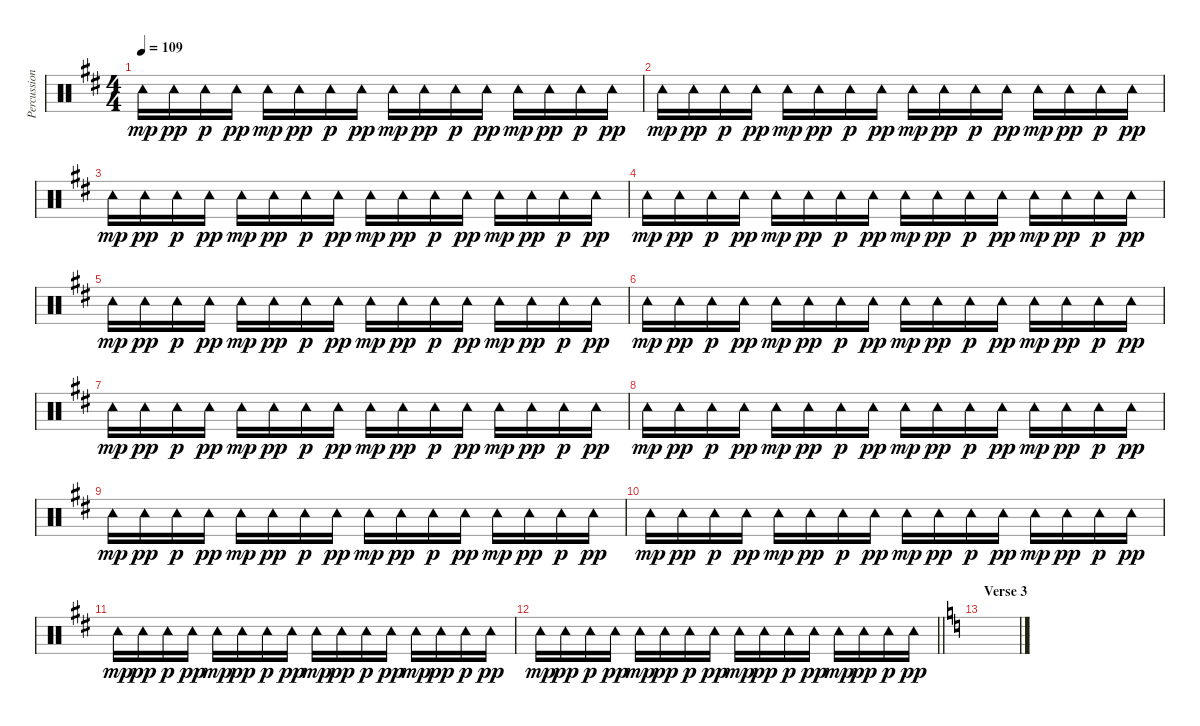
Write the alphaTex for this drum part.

\track ("Percussion (Rick McMurray)" "Percussion") {instrument percussion}
\staff {score}
\articulation defaults
\ts (4 4)
\tempo 109
\clef neutral
\ks d "Tambourine (hit)".16{dy mp} "Tambourine (hit)".16{dy pp} "Tambourine (hit)".16{dy p} "Tambourine (hit)".16{dy pp} "Tambourine (hit)".16{dy mp} "Tambourine (hit)".16{dy pp} "Tambourine (hit)".16{dy p} "Tambourine (hit)".16{dy pp} "Tambourine (hit)".16{dy mp} "Tambourine (hit)".16{dy pp} "Tambourine (hit)".16{dy p} "Tambourine (hit)".16{dy pp} "Tambourine (hit)".16{dy mp} "Tambourine (hit)".16{dy pp} "Tambourine (hit)".16{dy p} "Tambourine (hit)".16{dy pp}
|
"Tambourine (hit)".16{dy mp} "Tambourine (hit)".16{dy pp} "Tambourine (hit)".16{dy p} "Tambourine (hit)".16{dy pp} "Tambourine (hit)".16{dy mp} "Tambourine (hit)".16{dy pp} "Tambourine (hit)".16{dy p} "Tambourine (hit)".16{dy pp} "Tambourine (hit)".16{dy mp} "Tambourine (hit)".16{dy pp} "Tambourine (hit)".16{dy p} "Tambourine (hit)".16{dy pp} "Tambourine (hit)".16{dy mp} "Tambourine (hit)".16{dy pp} "Tambourine (hit)".16{dy p} "Tambourine (hit)".16{dy pp} |
"Tambourine (hit)".16{dy mp} "Tambourine (hit)".16{dy pp} "Tambourine (hit)".16{dy p} "Tambourine (hit)".16{dy pp} "Tambourine (hit)".16{dy mp} "Tambourine (hit)".16{dy pp} "Tambourine (hit)".16{dy p} "Tambourine (hit)".16{dy pp} "Tambourine (hit)".16{dy mp} "Tambourine (hit)".16{dy pp} "Tambourine (hit)".16{dy p} "Tambourine (hit)".16{dy pp} "Tambourine (hit)".16{dy mp} "Tambourine (hit)".16{dy pp} "Tambourine (hit)".16{dy p} "Tambourine (hit)".16{dy pp} |
"Tambourine (hit)".16{dy mp} "Tambourine (hit)".16{dy pp} "Tambourine (hit)".16{dy p} "Tambourine (hit)".16{dy pp} "Tambourine (hit)".16{dy mp} "Tambourine (hit)".16{dy pp} "Tambourine (hit)".16{dy p} "Tambourine (hit)".16{dy pp} "Tambourine (hit)".16{dy mp} "Tambourine (hit)".16{dy pp} "Tambourine (hit)".16{dy p} "Tambourine (hit)".16{dy pp} "Tambourine (hit)".16{dy mp} "Tambourine (hit)".16{dy pp} "Tambourine (hit)".16{dy p} "Tambourine (hit)".16{dy pp} |
"Tambourine (hit)".16{dy mp} "Tambourine (hit)".16{dy pp} "Tambourine (hit)".16{dy p} "Tambourine (hit)".16{dy pp} "Tambourine (hit)".16{dy mp} "Tambourine (hit)".16{dy pp} "Tambourine (hit)".16{dy p} "Tambourine (hit)".16{dy pp} "Tambourine (hit)".16{dy mp} "Tambourine (hit)".16{dy pp} "Tambourine (hit)".16{dy p} "Tambourine (hit)".16{dy pp} "Tambourine (hit)".16{dy mp} "Tambourine (hit)".16{dy pp} "Tambourine (hit)".16{dy p} "Tambourine (hit)".16{dy pp} |
"Tambourine (hit)".16{dy mp} "Tambourine (hit)".16{dy pp} "Tambourine (hit)".16{dy p} "Tambourine (hit)".16{dy pp} "Tambourine (hit)".16{dy mp} "Tambourine (hit)".16{dy pp} "Tambourine (hit)".16{dy p} "Tambourine (hit)".16{dy pp} "Tambourine (hit)".16{dy mp} "Tambourine (hit)".16{dy pp} "Tambourine (hit)".16{dy p} "Tambourine (hit)".16{dy pp} "Tambourine (hit)".16{dy mp} "Tambourine (hit)".16{dy pp} "Tambourine (hit)".16{dy p} "Tambourine (hit)".16{dy pp} |
"Tambourine (hit)".16{dy mp} "Tambourine (hit)".16{dy pp} "Tambourine (hit)".16{dy p} "Tambourine (hit)".16{dy pp} "Tambourine (hit)".16{dy mp} "Tambourine (hit)".16{dy pp} "Tambourine (hit)".16{dy p} "Tambourine (hit)".16{dy pp} "Tambourine (hit)".16{dy mp} "Tambourine (hit)".16{dy pp} "Tambourine (hit)".16{dy p} "Tambourine (hit)".16{dy pp} "Tambourine (hit)".16{dy mp} "Tambourine (hit)".16{dy pp} "Tambourine (hit)".16{dy p} "Tambourine (hit)".16{dy pp} |
"Tambourine (hit)".16{dy mp} "Tambourine (hit)".16{dy pp} "Tambourine (hit)".16{dy p} "Tambourine (hit)".16{dy pp} "Tambourine (hit)".16{dy mp} "Tambourine (hit)".16{dy pp} "Tambourine (hit)".16{dy p} "Tambourine (hit)".16{dy pp} "Tambourine (hit)".16{dy mp} "Tambourine (hit)".16{dy pp} "Tambourine (hit)".16{dy p} "Tambourine (hit)".16{dy pp} "Tambourine (hit)".16{dy mp} "Tambourine (hit)".16{dy pp} "Tambourine (hit)".16{dy p} "Tambourine (hit)".16{dy pp} |
"Tambourine (hit)".16{dy mp} "Tambourine (hit)".16{dy pp} "Tambourine (hit)".16{dy p} "Tambourine (hit)".16{dy pp} "Tambourine (hit)".16{dy mp} "Tambourine (hit)".16{dy pp} "Tambourine (hit)".16{dy p} "Tambourine (hit)".16{dy pp} "Tambourine (hit)".16{dy mp} "Tambourine (hit)".16{dy pp} "Tambourine (hit)".16{dy p} "Tambourine (hit)".16{dy pp} "Tambourine (hit)".16{dy mp} "Tambourine (hit)".16{dy pp} "Tambourine (hit)".16{dy p} "Tambourine (hit)".16{dy pp} |
"Tambourine (hit)".16{dy mp} "Tambourine (hit)".16{dy pp} "Tambourine (hit)".16{dy p} "Tambourine (hit)".16{dy pp} "Tambourine (hit)".16{dy mp} "Tambourine (hit)".16{dy pp} "Tambourine (hit)".16{dy p} "Tambourine (hit)".16{dy pp} "Tambourine (hit)".16{dy mp} "Tambourine (hit)".16{dy pp} "Tambourine (hit)".16{dy p} "Tambourine (hit)".16{dy pp} "Tambourine (hit)".16{dy mp} "Tambourine (hit)".16{dy pp} "Tambourine (hit)".16{dy p} "Tambourine (hit)".16{dy pp} |
"Tambourine (hit)".16{dy mp} "Tambourine (hit)".16{dy pp} "Tambourine (hit)".16{dy p} "Tambourine (hit)".16{dy pp} "Tambourine (hit)".16{dy mp} "Tambourine (hit)".16{dy pp} "Tambourine (hit)".16{dy p} "Tambourine (hit)".16{dy pp} "Tambourine (hit)".16{dy mp} "Tambourine (hit)".16{dy pp} "Tambourine (hit)".16{dy p} "Tambourine (hit)".16{dy pp} "Tambourine (hit)".16{dy mp} "Tambourine (hit)".16{dy pp} "Tambourine (hit)".16{dy p} "Tambourine (hit)".16{dy pp} |
\barLineRight lightlight "Tambourine (hit)".16{dy mp} "Tambourine (hit)".16{dy pp} "Tambourine (hit)".16{dy p} "Tambourine (hit)".16{dy pp} "Tambourine (hit)".16{dy mp} "Tambourine (hit)".16{dy pp} "Tambourine (hit)".16{dy p} "Tambourine (hit)".16{dy pp} "Tambourine (hit)".16{dy mp} "Tambourine (hit)".16{dy pp} "Tambourine (hit)".16{dy p} "Tambourine (hit)".16{dy pp} "Tambourine (hit)".16{dy mp} "Tambourine (hit)".16{dy pp} "Tambourine (hit)".16{dy p} "Tambourine (hit)".16{dy pp}
|
\section ("" "Verse 3")
\ks c
